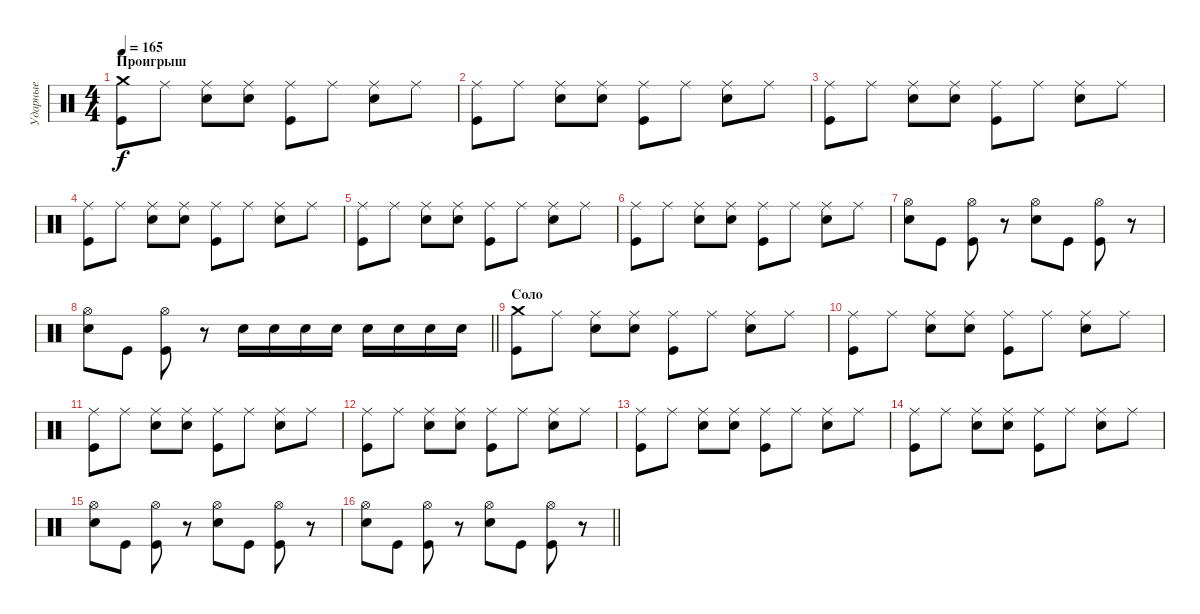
\track ("Ударные" "Ударные") {instrument percussion}
\staff {score}
\articulation defaults
\ts (4 4)
\section ("" "Проигрыш")
\tempo 165
\clef neutral
\ks c
("Crash medium (hit)" "Kick (hit)").8{dy f} "Ride (middle)".8 ("Ride (middle)" "Electric Snare (hit)").8 ("Ride (middle)" "Electric Snare (hit)").8 ("Ride (middle)" "Kick (hit)").8 "Ride (middle)".8 ("Ride (middle)" "Electric Snare (hit)").8 "Ride (middle)".8 |
("Ride (middle)" "Kick (hit)").8 "Ride (middle)".8 ("Ride (middle)" "Electric Snare (hit)").8 ("Ride (middle)" "Electric Snare (hit)").8 ("Ride (middle)" "Kick (hit)").8 "Ride (middle)".8 ("Ride (middle)" "Electric Snare (hit)").8 "Ride (middle)".8 |
("Ride (middle)" "Kick (hit)").8 "Ride (middle)".8 ("Ride (middle)" "Electric Snare (hit)").8 ("Ride (middle)" "Electric Snare (hit)").8 ("Ride (middle)" "Kick (hit)").8 "Ride (middle)".8 ("Ride (middle)" "Electric Snare (hit)").8 "Ride (middle)".8 |
("Ride (middle)" "Kick (hit)").8 "Ride (middle)".8 ("Ride (middle)" "Electric Snare (hit)").8 ("Ride (middle)" "Electric Snare (hit)").8 ("Ride (middle)" "Kick (hit)").8 "Ride (middle)".8 ("Ride (middle)" "Electric Snare (hit)").8 "Ride (middle)".8 |
("Ride (middle)" "Kick (hit)").8 "Ride (middle)".8 ("Ride (middle)" "Electric Snare (hit)").8 ("Ride (middle)" "Electric Snare (hit)").8 ("Ride (middle)" "Kick (hit)").8 "Ride (middle)".8 ("Ride (middle)" "Electric Snare (hit)").8 "Ride (middle)".8 |
("Ride (middle)" "Kick (hit)").8 "Ride (middle)".8 ("Ride (middle)" "Electric Snare (hit)").8 ("Ride (middle)" "Electric Snare (hit)").8 ("Ride (middle)" "Kick (hit)").8 "Ride (middle)".8 ("Ride (middle)" "Electric Snare (hit)").8 "Ride (middle)".8 |
("Hi-Hat (open)" "Electric Snare (hit)").8 "Kick (hit)".8 ("Hi-Hat (open)" "Kick (hit)").8 r.8 ("Hi-Hat (open)" "Electric Snare (hit)").8 "Kick (hit)".8 ("Hi-Hat (open)" "Kick (hit)").8 r.8 |
\barLineRight lightlight
("Hi-Hat (open)" "Electric Snare (hit)").8 "Kick (hit)".8 ("Hi-Hat (open)" "Kick (hit)").8 r.8 "Electric Snare (hit)".16 "Electric Snare (hit)".16 "Electric Snare (hit)".16 "Electric Snare (hit)".16 "Electric Snare (hit)".16 "Electric Snare (hit)".16 "Electric Snare (hit)".16 "Electric Snare (hit)".16 |
\section ("" "Соло")
("Crash medium (hit)" "Kick (hit)").8 "Ride (middle)".8 ("Ride (middle)" "Electric Snare (hit)").8 ("Ride (middle)" "Electric Snare (hit)").8 ("Ride (middle)" "Kick (hit)").8 "Ride (middle)".8 ("Ride (middle)" "Electric Snare (hit)").8 "Ride (middle)".8 |
("Ride (middle)" "Kick (hit)").8 "Ride (middle)".8 ("Ride (middle)" "Electric Snare (hit)").8 ("Ride (middle)" "Electric Snare (hit)").8 ("Ride (middle)" "Kick (hit)").8 "Ride (middle)".8 ("Ride (middle)" "Electric Snare (hit)").8 "Ride (middle)".8 |
("Ride (middle)" "Kick (hit)").8 "Ride (middle)".8 ("Ride (middle)" "Electric Snare (hit)").8 ("Ride (middle)" "Electric Snare (hit)").8 ("Ride (middle)" "Kick (hit)").8 "Ride (middle)".8 ("Ride (middle)" "Electric Snare (hit)").8 "Ride (middle)".8 |
("Ride (middle)" "Kick (hit)").8 "Ride (middle)".8 ("Ride (middle)" "Electric Snare (hit)").8 ("Ride (middle)" "Electric Snare (hit)").8 ("Ride (middle)" "Kick (hit)").8 "Ride (middle)".8 ("Ride (middle)" "Electric Snare (hit)").8 "Ride (middle)".8 |
("Ride (middle)" "Kick (hit)").8 "Ride (middle)".8 ("Ride (middle)" "Electric Snare (hit)").8 ("Ride (middle)" "Electric Snare (hit)").8 ("Ride (middle)" "Kick (hit)").8 "Ride (middle)".8 ("Ride (middle)" "Electric Snare (hit)").8 "Ride (middle)".8 |
("Ride (middle)" "Kick (hit)").8 "Ride (middle)".8 ("Ride (middle)" "Electric Snare (hit)").8 ("Ride (middle)" "Electric Snare (hit)").8 ("Ride (middle)" "Kick (hit)").8 "Ride (middle)".8 ("Ride (middle)" "Electric Snare (hit)").8 "Ride (middle)".8 |
("Hi-Hat (open)" "Electric Snare (hit)").8 "Kick (hit)".8 ("Hi-Hat (open)" "Kick (hit)").8 r.8 ("Hi-Hat (open)" "Electric Snare (hit)").8 "Kick (hit)".8 ("Hi-Hat (open)" "Kick (hit)").8 r.8 |
\barLineRight lightlight
("Hi-Hat (open)" "Electric Snare (hit)").8 "Kick (hit)".8 ("Hi-Hat (open)" "Kick (hit)").8 r.8 ("Hi-Hat (open)" "Electric Snare (hit)").8 "Kick (hit)".8 ("Hi-Hat (open)" "Kick (hit)").8 r.8
